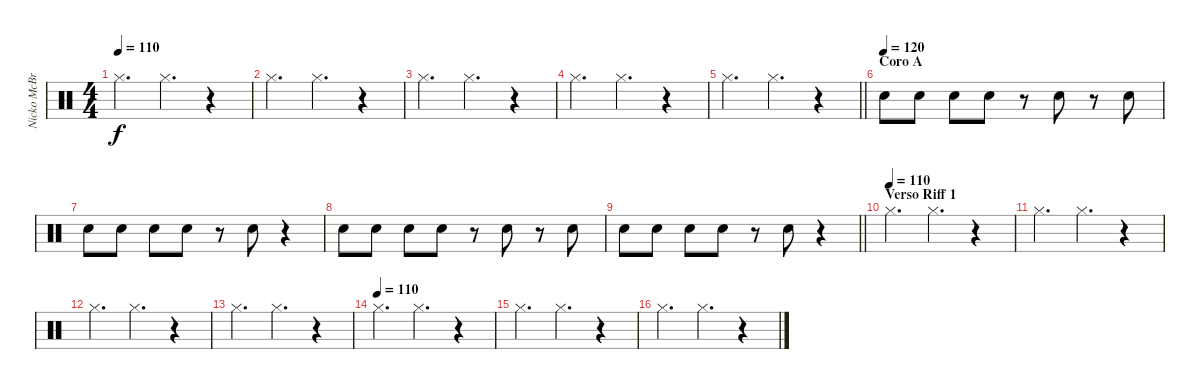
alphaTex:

\track ("Nicko McBrain" "Nicko McBr") {instrument percussion}
\staff {score}
\articulation defaults
\ts (4 4)
\tempo 110
\clef neutral
\ks c "Hi-Hat (closed)".4{d dy f} "Hi-Hat (closed)".4{d}
r.4 |
"Hi-Hat (closed)".4{d} "Hi-Hat (closed)".4{d} r.4 |
"Hi-Hat (closed)".4{d} "Hi-Hat (closed)".4{d} r.4 |
"Hi-Hat (closed)".4{d} "Hi-Hat (closed)".4{d} r.4 |
\barLineRight lightlight "Hi-Hat (closed)".4{d} "Hi-Hat (closed)".4{d}
r.4 |
\section ("" "Coro A")
\tempo (120)
"Snare (hit) 2".8 "Snare (hit) 2".8 "Snare (hit) 2".8 "Snare (hit) 2".8 r.8 "Snare (hit) 2".8 r.8 "Snare (hit) 2".8 |
"Snare (hit) 2".8 "Snare (hit) 2".8 "Snare (hit) 2".8 "Snare (hit) 2".8 r.8 "Snare (hit) 2".8 r.4 |
"Snare (hit) 2".8 "Snare (hit) 2".8 "Snare (hit) 2".8 "Snare (hit) 2".8 r.8 "Snare (hit) 2".8 r.8 "Snare (hit) 2".8 |
\barLineRight lightlight "Snare (hit) 2".8 "Snare (hit) 2".8 "Snare (hit) 2".8 "Snare (hit) 2".8
r.8 "Snare (hit) 2".8 r.4 |
\section ("" "Verso Riff 1")
\tempo (110)
"Hi-Hat (closed)".4{d} "Hi-Hat (closed)".4{d} r.4 |
"Hi-Hat (closed)".4{d} "Hi-Hat (closed)".4{d} r.4 |
"Hi-Hat (closed)".4{d} "Hi-Hat (closed)".4{d} r.4 |
"Hi-Hat (closed)".4{d} "Hi-Hat (closed)".4{d} r.4 |
\tempo (110)
"Hi-Hat (closed)".4{d} "Hi-Hat (closed)".4{d} r.4 |
"Hi-Hat (closed)".4{d} "Hi-Hat (closed)".4{d} r.4 |
"Hi-Hat (closed)".4{d} "Hi-Hat (closed)".4{d} r.4
